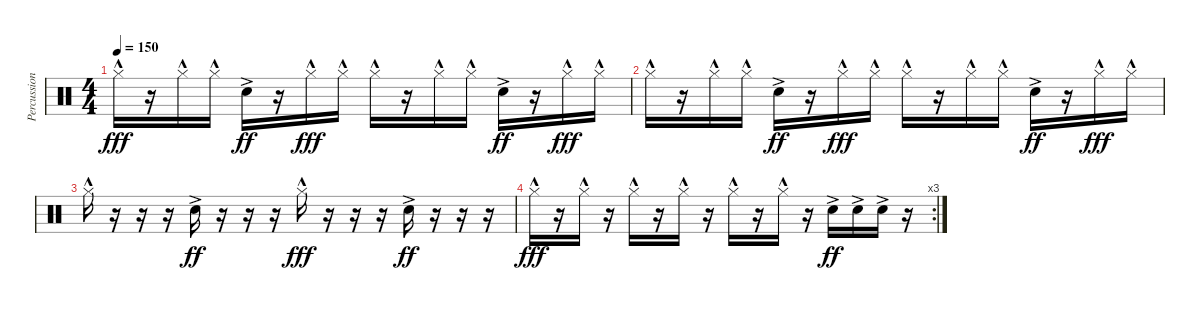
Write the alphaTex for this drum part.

\track ("Percussion" "Percussion") {instrument percussion}
\staff {score}
\articulation defaults
\ts (4 4)
\tempo 150
\clef neutral
\ks c "Hi-Hat (closed)"{hac}.16{dy fff}
r.16 "Hi-Hat (closed)"{hac}.16 "Hi-Hat (closed)"{hac}.16 "Snare (hit) 2"{ac}.16{dy ff} r.16 "Hi-Hat (closed)"{hac}.16{dy fff} "Hi-Hat (closed)"{hac}.16 "Hi-Hat (closed)"{hac}.16 r.16 "Hi-Hat (closed)"{hac}.16 "Hi-Hat (closed)"{hac}.16 "Snare (hit) 2"{ac}.16{dy ff} r.16 "Hi-Hat (closed)"{hac}.16{dy fff} "Hi-Hat (closed)"{hac}.16 |
"Hi-Hat (closed)"{hac}.16 r.16 "Hi-Hat (closed)"{hac}.16 "Hi-Hat (closed)"{hac}.16 "Snare (hit) 2"{ac}.16{dy ff} r.16 "Hi-Hat (closed)"{hac}.16{dy fff} "Hi-Hat (closed)"{hac}.16 "Hi-Hat (closed)"{hac}.16 r.16 "Hi-Hat (closed)"{hac}.16 "Hi-Hat (closed)"{hac}.16 "Snare (hit) 2"{ac}.16{dy ff} r.16 "Hi-Hat (closed)"{hac}.16{dy fff} "Hi-Hat (closed)"{hac}.16 |
"Hi-Hat (closed)"{hac}.16 r.16 r.16 r.16 "Snare (hit) 2"{ac}.16{dy ff} r.16 r.16 r.16 "Hi-Hat (closed)"{hac}.16{dy fff} r.16 r.16 r.16 "Snare (hit) 2"{ac}.16{dy ff} r.16 r.16 r.16 |
\rc 3 "Hi-Hat (closed)"{hac}.16{dy fff}
r.16 "Hi-Hat (closed)"{hac}.16 r.16 "Hi-Hat (closed)"{hac}.16 r.16 "Hi-Hat (closed)"{hac}.16 r.16 "Hi-Hat (closed)"{hac}.16 r.16 "Hi-Hat (closed)"{hac}.16 r.16 "Snare (hit) 2"{ac}.16{dy ff} "Snare (hit) 2"{ac}.16 "Snare (hit) 2"{ac}.16 r.16
